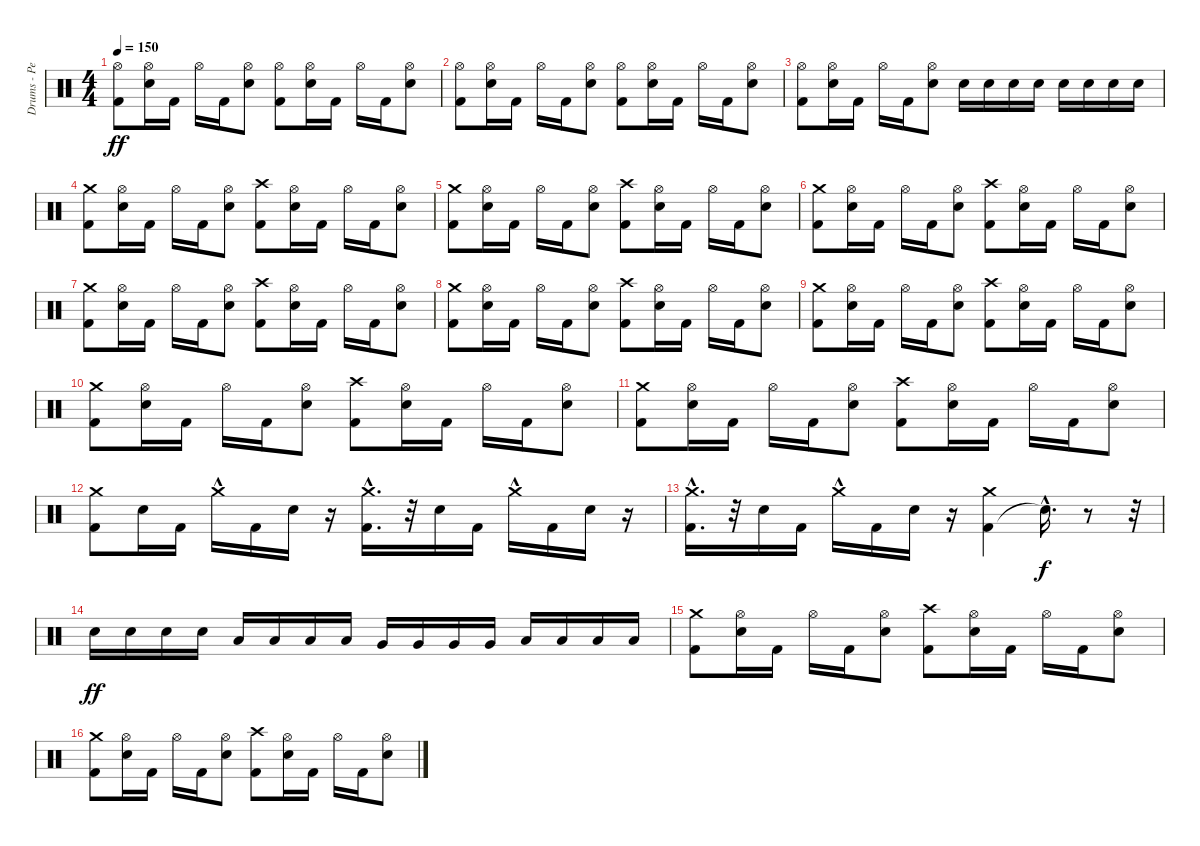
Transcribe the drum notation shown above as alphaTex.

\track ("Drums - Pete Finestone" "Drums - Pe") {instrument percussion}
\staff {score}
\articulation defaults
\ts (4 4)
\tempo 150
\clef neutral
\ks c
("Kick (hit) 2" "Hi-Hat (open)").8{dy ff} ("Electric Snare (hit)" "Hi-Hat (open)").16 "Kick (hit) 2".16 "Hi-Hat (open)".16 "Kick (hit) 2".16 ("Electric Snare (hit)" "Hi-Hat (open)").8 ("Kick (hit) 2" "Hi-Hat (open)").8 ("Electric Snare (hit)" "Hi-Hat (open)").16 "Kick (hit) 2".16 "Hi-Hat (open)".16 "Kick (hit) 2".16 ("Electric Snare (hit)" "Hi-Hat (open)").8 |
("Kick (hit) 2" "Hi-Hat (open)").8 ("Electric Snare (hit)" "Hi-Hat (open)").16 "Kick (hit) 2".16 "Hi-Hat (open)".16 "Kick (hit) 2".16 ("Electric Snare (hit)" "Hi-Hat (open)").8 ("Kick (hit) 2" "Hi-Hat (open)").8 ("Electric Snare (hit)" "Hi-Hat (open)").16 "Kick (hit) 2".16 "Hi-Hat (open)".16 "Kick (hit) 2".16 ("Electric Snare (hit)" "Hi-Hat (open)").8 |
("Kick (hit) 2" "Hi-Hat (open)").8 ("Electric Snare (hit)" "Hi-Hat (open)").16 "Kick (hit) 2".16 "Hi-Hat (open)".16 "Kick (hit) 2".16 ("Electric Snare (hit)" "Hi-Hat (open)").8 "Electric Snare (hit)".16 "Electric Snare (hit)".16 "Electric Snare (hit)".16 "Electric Snare (hit)".16 "Electric Snare (hit)".16 "Electric Snare (hit)".16 "Electric Snare (hit)".16 "Electric Snare (hit)".16 |
("Kick (hit) 2" "Crash medium (hit)").8 ("Electric Snare (hit)" "Hi-Hat (open)").16 "Kick (hit) 2".16 "Hi-Hat (open)".16 "Kick (hit) 2".16 ("Electric Snare (hit)" "Hi-Hat (open)").8 ("Kick (hit) 2" "Crash high (hit)").8 ("Electric Snare (hit)" "Hi-Hat (open)").16 "Kick (hit) 2".16 "Hi-Hat (open)".16 "Kick (hit) 2".16 ("Electric Snare (hit)" "Hi-Hat (open)").8 |
("Kick (hit) 2" "Crash medium (hit)").8 ("Electric Snare (hit)" "Hi-Hat (open)").16 "Kick (hit) 2".16 "Hi-Hat (open)".16 "Kick (hit) 2".16 ("Electric Snare (hit)" "Hi-Hat (open)").8 ("Kick (hit) 2" "Crash high (hit)").8 ("Electric Snare (hit)" "Hi-Hat (open)").16 "Kick (hit) 2".16 "Hi-Hat (open)".16 "Kick (hit) 2".16 ("Electric Snare (hit)" "Hi-Hat (open)").8 |
("Kick (hit) 2" "Crash medium (hit)").8 ("Electric Snare (hit)" "Hi-Hat (open)").16 "Kick (hit) 2".16 "Hi-Hat (open)".16 "Kick (hit) 2".16 ("Electric Snare (hit)" "Hi-Hat (open)").8 ("Kick (hit) 2" "Crash high (hit)").8 ("Electric Snare (hit)" "Hi-Hat (open)").16 "Kick (hit) 2".16 "Hi-Hat (open)".16 "Kick (hit) 2".16 ("Electric Snare (hit)" "Hi-Hat (open)").8 |
("Kick (hit) 2" "Crash medium (hit)").8 ("Electric Snare (hit)" "Hi-Hat (open)").16 "Kick (hit) 2".16 "Hi-Hat (open)".16 "Kick (hit) 2".16 ("Electric Snare (hit)" "Hi-Hat (open)").8 ("Kick (hit) 2" "Crash high (hit)").8 ("Electric Snare (hit)" "Hi-Hat (open)").16 "Kick (hit) 2".16 "Hi-Hat (open)".16 "Kick (hit) 2".16 ("Electric Snare (hit)" "Hi-Hat (open)").8 |
("Kick (hit) 2" "Crash medium (hit)").8 ("Electric Snare (hit)" "Hi-Hat (open)").16 "Kick (hit) 2".16 "Hi-Hat (open)".16 "Kick (hit) 2".16 ("Electric Snare (hit)" "Hi-Hat (open)").8 ("Kick (hit) 2" "Crash high (hit)").8 ("Electric Snare (hit)" "Hi-Hat (open)").16 "Kick (hit) 2".16 "Hi-Hat (open)".16 "Kick (hit) 2".16 ("Electric Snare (hit)" "Hi-Hat (open)").8 |
("Kick (hit) 2" "Crash medium (hit)").8 ("Electric Snare (hit)" "Hi-Hat (open)").16 "Kick (hit) 2".16 "Hi-Hat (open)".16 "Kick (hit) 2".16 ("Electric Snare (hit)" "Hi-Hat (open)").8 ("Kick (hit) 2" "Crash high (hit)").8 ("Electric Snare (hit)" "Hi-Hat (open)").16 "Kick (hit) 2".16 "Hi-Hat (open)".16 "Kick (hit) 2".16 ("Electric Snare (hit)" "Hi-Hat (open)").8 |
("Kick (hit) 2" "Crash medium (hit)").8 ("Electric Snare (hit)" "Hi-Hat (open)").16 "Kick (hit) 2".16 "Hi-Hat (open)".16 "Kick (hit) 2".16 ("Electric Snare (hit)" "Hi-Hat (open)").8 ("Kick (hit) 2" "Crash high (hit)").8 ("Electric Snare (hit)" "Hi-Hat (open)").16 "Kick (hit) 2".16 "Hi-Hat (open)".16 "Kick (hit) 2".16 ("Electric Snare (hit)" "Hi-Hat (open)").8 |
("Kick (hit) 2" "Crash medium (hit)").8 ("Electric Snare (hit)" "Hi-Hat (open)").16 "Kick (hit) 2".16 "Hi-Hat (open)".16 "Kick (hit) 2".16 ("Electric Snare (hit)" "Hi-Hat (open)").8 ("Kick (hit) 2" "Crash high (hit)").8 ("Electric Snare (hit)" "Hi-Hat (open)").16 "Kick (hit) 2".16 "Hi-Hat (open)".16 "Kick (hit) 2".16 ("Electric Snare (hit)" "Hi-Hat (open)").8 |
("Kick (hit) 2" "Crash medium (hit)").8 "Electric Snare (hit)".16 "Kick (hit) 2".16 "Crash medium (hit)"{hac}.16 "Kick (hit) 2".16 "Electric Snare (hit)".16 r.16 ("Kick (hit) 2" "Crash medium (hit)"{hac}).16{d} r.32 "Electric Snare (hit)".16 "Kick (hit) 2".16 "Crash medium (hit)"{hac}.16 "Kick (hit) 2".16 "Electric Snare (hit)".16 r.16 |
("Kick (hit) 2" "Crash medium (hit)"{hac}).16{d} r.32 "Electric Snare (hit)".16 "Kick (hit) 2".16 "Crash medium (hit)"{hac}.16 "Kick (hit) 2".16 "Electric Snare (hit)".16 r.16 ("Kick (hit) 2" "Crash medium (hit)").4 "Snare (hit)"{hac t}.16{d dy f} r.8 r.32 |
"Electric Snare (hit)".16{dy ff} "Electric Snare (hit)".16 "Electric Snare (hit)".16 "Electric Snare (hit)".16 "Low Tom (hit)".16 "Low Tom (hit)".16 "Low Tom (hit)".16 "Low Tom (hit)".16 "Very Low Tom (hit)".16 "Very Low Tom (hit)".16 "Very Low Tom (hit)".16 "Very Low Tom (hit)".16 "Low Floor Tom (hit)".16 "Low Floor Tom (hit)".16 "Low Floor Tom (hit)".16 "Low Floor Tom (hit)".16 |
("Kick (hit) 2" "Crash medium (hit)").8 ("Electric Snare (hit)" "Hi-Hat (open)").16 "Kick (hit) 2".16 "Hi-Hat (open)".16 "Kick (hit) 2".16 ("Electric Snare (hit)" "Hi-Hat (open)").8 ("Kick (hit) 2" "Crash high (hit)").8 ("Electric Snare (hit)" "Hi-Hat (open)").16 "Kick (hit) 2".16 "Hi-Hat (open)".16 "Kick (hit) 2".16 ("Electric Snare (hit)" "Hi-Hat (open)").8 |
("Kick (hit) 2" "Crash medium (hit)").8 ("Electric Snare (hit)" "Hi-Hat (open)").16 "Kick (hit) 2".16 "Hi-Hat (open)".16 "Kick (hit) 2".16 ("Electric Snare (hit)" "Hi-Hat (open)").8 ("Kick (hit) 2" "Crash high (hit)").8 ("Electric Snare (hit)" "Hi-Hat (open)").16 "Kick (hit) 2".16 "Hi-Hat (open)".16 "Kick (hit) 2".16 ("Electric Snare (hit)" "Hi-Hat (open)").8
